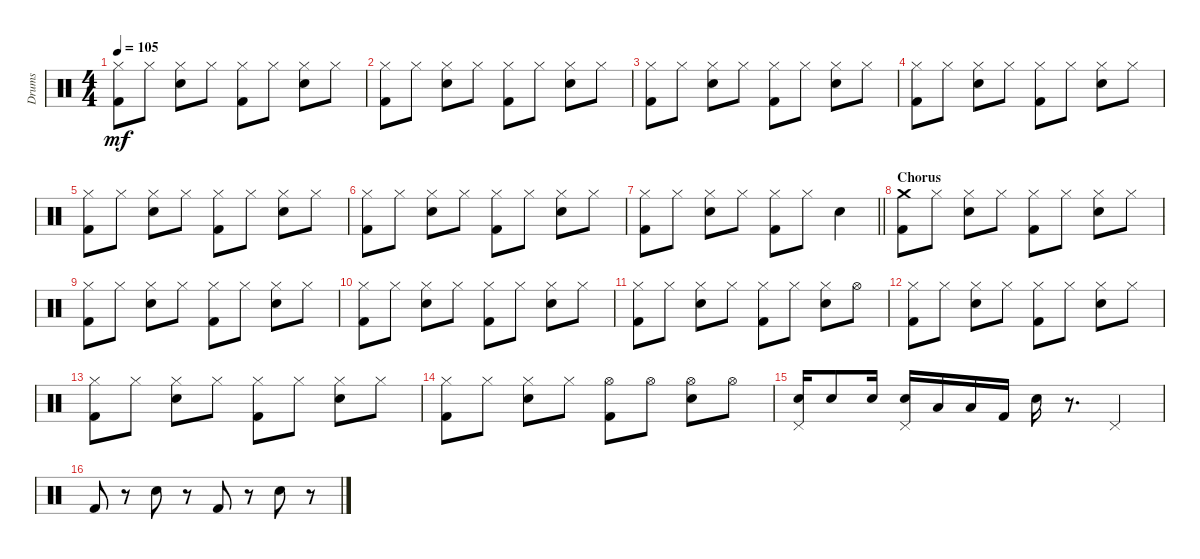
\track ("Drums" "Drums") {instrument percussion}
\staff {score}
\articulation defaults
\ts (4 4)
\tempo 105
\clef neutral
\ks c
("Hi-Hat (closed)" "Kick (hit) 2").8{dy mf} "Hi-Hat (closed)".8 ("Hi-Hat (closed)" "Snare (hit) 2").8 "Hi-Hat (closed)".8 ("Hi-Hat (closed)" "Kick (hit) 2").8 "Hi-Hat (closed)".8 ("Hi-Hat (closed)" "Snare (hit) 2").8 "Hi-Hat (closed)".8 |
("Hi-Hat (closed)" "Kick (hit) 2").8 "Hi-Hat (closed)".8 ("Hi-Hat (closed)" "Snare (hit) 2").8 "Hi-Hat (closed)".8 ("Hi-Hat (closed)" "Kick (hit) 2").8 "Hi-Hat (closed)".8 ("Hi-Hat (closed)" "Snare (hit) 2").8 "Hi-Hat (closed)".8 |
("Hi-Hat (closed)" "Kick (hit) 2").8 "Hi-Hat (closed)".8 ("Hi-Hat (closed)" "Snare (hit) 2").8 "Hi-Hat (closed)".8 ("Hi-Hat (closed)" "Kick (hit) 2").8 "Hi-Hat (closed)".8 ("Hi-Hat (closed)" "Snare (hit) 2").8 "Hi-Hat (closed)".8 |
("Hi-Hat (closed)" "Kick (hit) 2").8 "Hi-Hat (closed)".8 ("Hi-Hat (closed)" "Snare (hit) 2").8 "Hi-Hat (closed)".8 ("Hi-Hat (closed)" "Kick (hit) 2").8 "Hi-Hat (closed)".8 ("Hi-Hat (closed)" "Snare (hit) 2").8 "Hi-Hat (closed)".8 |
("Hi-Hat (closed)" "Kick (hit) 2").8 "Hi-Hat (closed)".8 ("Hi-Hat (closed)" "Snare (hit) 2").8 "Hi-Hat (closed)".8 ("Hi-Hat (closed)" "Kick (hit) 2").8 "Hi-Hat (closed)".8 ("Hi-Hat (closed)" "Snare (hit) 2").8 "Hi-Hat (closed)".8 |
("Hi-Hat (closed)" "Kick (hit) 2").8 "Hi-Hat (closed)".8 ("Hi-Hat (closed)" "Snare (hit) 2").8 "Hi-Hat (closed)".8 ("Hi-Hat (closed)" "Kick (hit) 2").8 "Hi-Hat (closed)".8 ("Hi-Hat (closed)" "Snare (hit) 2").8 "Hi-Hat (closed)".8 |
\barLineRight lightlight
("Hi-Hat (closed)" "Kick (hit) 2").8 "Hi-Hat (closed)".8 ("Hi-Hat (closed)" "Snare (hit) 2").8 "Hi-Hat (closed)".8 ("Hi-Hat (closed)" "Kick (hit) 2").8 "Hi-Hat (closed)".8 "Snare (hit) 2".4 |
\section ("" "Chorus")
("Crash medium (hit)" "Kick (hit) 2").8 "Hi-Hat (closed)".8 ("Hi-Hat (closed)" "Snare (hit) 2").8 "Hi-Hat (closed)".8 ("Hi-Hat (closed)" "Kick (hit) 2").8 "Hi-Hat (closed)".8 ("Hi-Hat (closed)" "Snare (hit) 2").8 "Hi-Hat (closed)".8 |
("Hi-Hat (closed)" "Kick (hit) 2").8 "Hi-Hat (closed)".8 ("Hi-Hat (closed)" "Snare (hit) 2").8 "Hi-Hat (closed)".8 ("Hi-Hat (closed)" "Kick (hit) 2").8 "Hi-Hat (closed)".8 ("Hi-Hat (closed)" "Snare (hit) 2").8 "Hi-Hat (closed)".8 |
("Hi-Hat (closed)" "Kick (hit) 2").8 "Hi-Hat (closed)".8 ("Hi-Hat (closed)" "Snare (hit) 2").8 "Hi-Hat (closed)".8 ("Hi-Hat (closed)" "Kick (hit) 2").8 "Hi-Hat (closed)".8 ("Hi-Hat (closed)" "Snare (hit) 2").8 "Hi-Hat (closed)".8 |
("Hi-Hat (closed)" "Kick (hit) 2").8 "Hi-Hat (closed)".8 ("Hi-Hat (closed)" "Snare (hit) 2").8 "Hi-Hat (closed)".8 ("Hi-Hat (closed)" "Kick (hit) 2").8 "Hi-Hat (closed)".8 ("Hi-Hat (closed)" "Snare (hit) 2").8 "Hi-Hat (open)".8 |
("Hi-Hat (closed)" "Kick (hit) 2").8 "Hi-Hat (closed)".8 ("Hi-Hat (closed)" "Snare (hit) 2").8 "Hi-Hat (closed)".8 ("Hi-Hat (closed)" "Kick (hit) 2").8 "Hi-Hat (closed)".8 ("Hi-Hat (closed)" "Snare (hit) 2").8 "Hi-Hat (closed)".8 |
("Hi-Hat (closed)" "Kick (hit) 2").8 "Hi-Hat (closed)".8 ("Hi-Hat (closed)" "Snare (hit) 2").8 "Hi-Hat (closed)".8 ("Hi-Hat (closed)" "Kick (hit) 2").8 "Hi-Hat (closed)".8 ("Hi-Hat (closed)" "Snare (hit) 2").8 "Hi-Hat (closed)".8 |
("Hi-Hat (closed)" "Kick (hit) 2").8 "Hi-Hat (closed)".8 ("Hi-Hat (closed)" "Snare (hit) 2").8 "Hi-Hat (closed)".8 ("Hi-Hat (open)" "Kick (hit) 2").8 "Hi-Hat (open)".8 ("Hi-Hat (open)" "Snare (hit) 2").8 "Hi-Hat (open)".8 |
("Pedal Hi-Hat (hit)" "Snare (hit) 2").16 "Snare (hit) 2".8 "Snare (hit) 2".16 ("Pedal Hi-Hat (hit)" "Snare (hit) 2").16 "Low Tom (hit)".16 "Low Tom (hit)".16 "Kick (hit) 2".16 "Snare (hit) 2".16 r.8{d} "Pedal Hi-Hat (hit)".4 |
"Kick (hit) 2".8 r.8 "Snare (hit) 2".8 r.8 "Kick (hit) 2".8 r.8 "Snare (hit) 2".8 r.8
